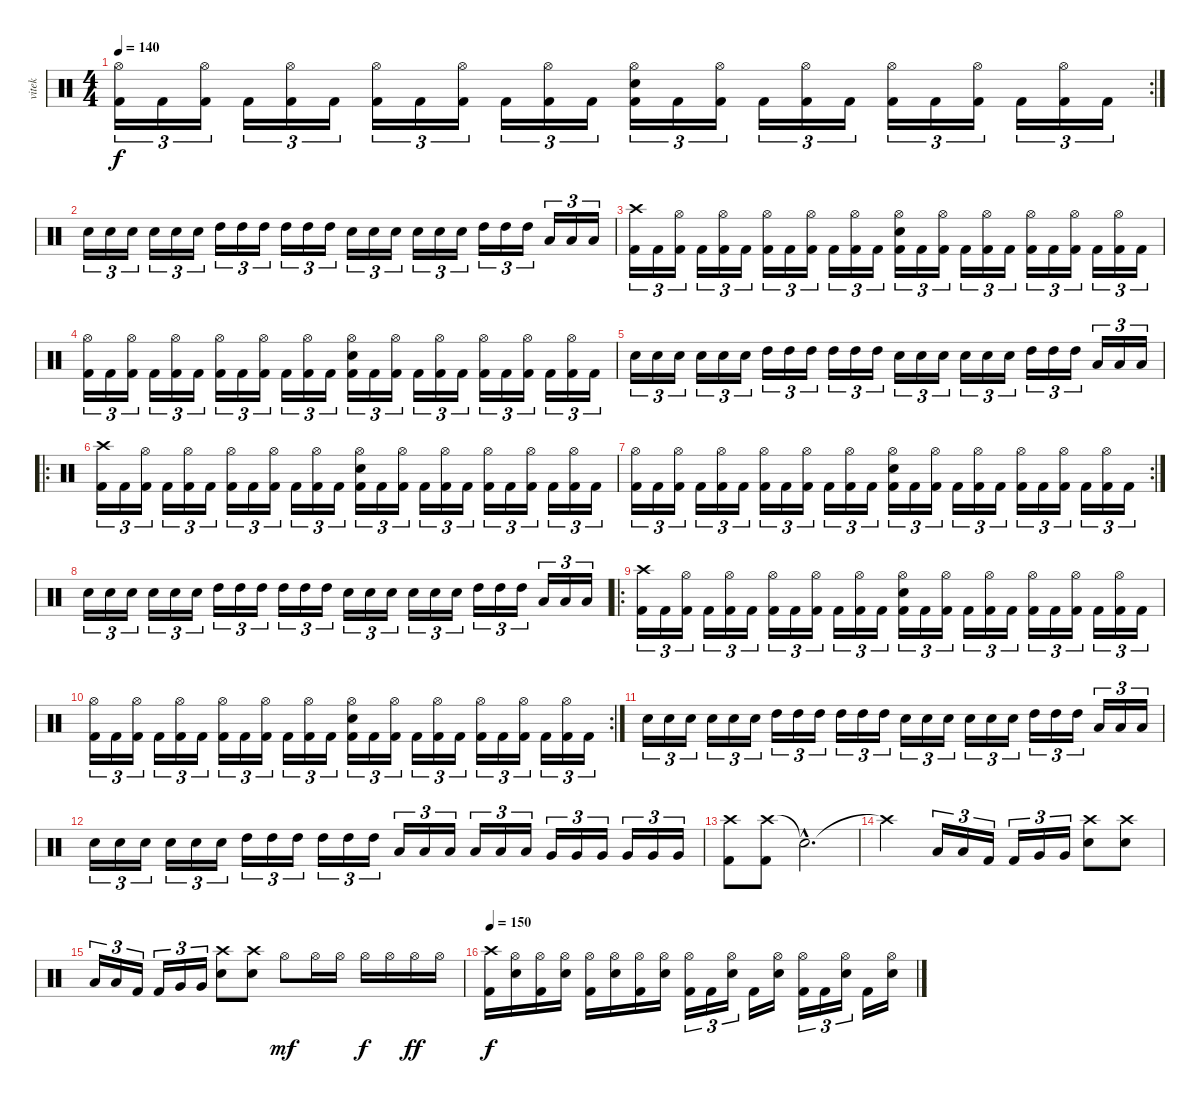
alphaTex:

\track ("vitek" "vitek") {instrument percussion}
\staff {score}
\articulation defaults
\rc 2
\ts (4 4)
\tempo 140
\clef neutral
\ks c
("Hi-Hat (open)" "Kick (hit) 2").16{tu (3 2) dy f} "Kick (hit) 2".16{tu (3 2)} ("Hi-Hat (open)" "Kick (hit) 2").16{tu (3 2)} "Kick (hit) 2".16{tu (3 2)} ("Hi-Hat (open)" "Kick (hit) 2").16{tu (3 2)} "Kick (hit) 2".16{tu (3 2)} ("Hi-Hat (open)" "Kick (hit) 2").16{tu (3 2)} "Kick (hit) 2".16{tu (3 2)} ("Hi-Hat (open)" "Kick (hit) 2").16{tu (3 2)} "Kick (hit) 2".16{tu (3 2)} ("Hi-Hat (open)" "Kick (hit) 2").16{tu (3 2)} "Kick (hit) 2".16{tu (3 2)} ("Hi-Hat (open)" "Electric Snare (hit)" "Kick (hit) 2").16{tu (3 2)} "Kick (hit) 2".16{tu (3 2)} ("Hi-Hat (open)" "Kick (hit) 2").16{tu (3 2)} "Kick (hit) 2".16{tu (3 2)} ("Hi-Hat (open)" "Kick (hit) 2").16{tu (3 2)} "Kick (hit) 2".16{tu (3 2)} ("Hi-Hat (open)" "Kick (hit) 2").16{tu (3 2)} "Kick (hit) 2".16{tu (3 2)} ("Hi-Hat (open)" "Kick (hit) 2").16{tu (3 2)} "Kick (hit) 2".16{tu (3 2)} ("Hi-Hat (open)" "Kick (hit) 2").16{tu (3 2)} "Kick (hit) 2".16{tu (3 2)} |
"Electric Snare (hit)".16{tu (3 2)} "Electric Snare (hit)".16{tu (3 2)} "Electric Snare (hit)".16{tu (3 2)} "Electric Snare (hit)".16{tu (3 2)} "Electric Snare (hit)".16{tu (3 2)} "Electric Snare (hit)".16{tu (3 2)} "High Tom (hit)".16{tu (3 2)} "High Tom (hit)".16{tu (3 2)} "High Tom (hit)".16{tu (3 2)} "High Tom (hit)".16{tu (3 2)} "High Tom (hit)".16{tu (3 2)} "High Tom (hit)".16{tu (3 2)} "Electric Snare (hit)".16{tu (3 2)} "Electric Snare (hit)".16{tu (3 2)} "Electric Snare (hit)".16{tu (3 2)} "Electric Snare (hit)".16{tu (3 2)} "Electric Snare (hit)".16{tu (3 2)} "Electric Snare (hit)".16{tu (3 2)} "High Tom (hit)".16{tu (3 2)} "High Tom (hit)".16{tu (3 2)} "High Tom (hit)".16{tu (3 2)} "Low Tom (hit)".16{tu (3 2)} "Low Tom (hit)".16{tu (3 2)} "Low Tom (hit)".16{tu (3 2)} |
("Crash high (hit)" "Kick (hit) 2").16{tu (3 2)} "Kick (hit) 2".16{tu (3 2)} ("Hi-Hat (open)" "Kick (hit) 2").16{tu (3 2)} "Kick (hit) 2".16{tu (3 2)} ("Hi-Hat (open)" "Kick (hit) 2").16{tu (3 2)} "Kick (hit) 2".16{tu (3 2)} ("Hi-Hat (open)" "Kick (hit) 2").16{tu (3 2)} "Kick (hit) 2".16{tu (3 2)} ("Hi-Hat (open)" "Kick (hit) 2").16{tu (3 2)} "Kick (hit) 2".16{tu (3 2)} ("Hi-Hat (open)" "Kick (hit) 2").16{tu (3 2)} "Kick (hit) 2".16{tu (3 2)} ("Hi-Hat (open)" "Electric Snare (hit)" "Kick (hit) 2").16{tu (3 2)} "Kick (hit) 2".16{tu (3 2)} ("Hi-Hat (open)" "Kick (hit) 2").16{tu (3 2)} "Kick (hit) 2".16{tu (3 2)} ("Hi-Hat (open)" "Kick (hit) 2").16{tu (3 2)} "Kick (hit) 2".16{tu (3 2)} ("Hi-Hat (open)" "Kick (hit) 2").16{tu (3 2)} "Kick (hit) 2".16{tu (3 2)} ("Hi-Hat (open)" "Kick (hit) 2").16{tu (3 2)} "Kick (hit) 2".16{tu (3 2)} ("Hi-Hat (open)" "Kick (hit) 2").16{tu (3 2)} "Kick (hit) 2".16{tu (3 2)} |
("Hi-Hat (open)" "Kick (hit) 2").16{tu (3 2)} "Kick (hit) 2".16{tu (3 2)} ("Hi-Hat (open)" "Kick (hit) 2").16{tu (3 2)} "Kick (hit) 2".16{tu (3 2)} ("Hi-Hat (open)" "Kick (hit) 2").16{tu (3 2)} "Kick (hit) 2".16{tu (3 2)} ("Hi-Hat (open)" "Kick (hit) 2").16{tu (3 2)} "Kick (hit) 2".16{tu (3 2)} ("Hi-Hat (open)" "Kick (hit) 2").16{tu (3 2)} "Kick (hit) 2".16{tu (3 2)} ("Hi-Hat (open)" "Kick (hit) 2").16{tu (3 2)} "Kick (hit) 2".16{tu (3 2)} ("Hi-Hat (open)" "Electric Snare (hit)" "Kick (hit) 2").16{tu (3 2)} "Kick (hit) 2".16{tu (3 2)} ("Hi-Hat (open)" "Kick (hit) 2").16{tu (3 2)} "Kick (hit) 2".16{tu (3 2)} ("Hi-Hat (open)" "Kick (hit) 2").16{tu (3 2)} "Kick (hit) 2".16{tu (3 2)} ("Hi-Hat (open)" "Kick (hit) 2").16{tu (3 2)} "Kick (hit) 2".16{tu (3 2)} ("Hi-Hat (open)" "Kick (hit) 2").16{tu (3 2)} "Kick (hit) 2".16{tu (3 2)} ("Hi-Hat (open)" "Kick (hit) 2").16{tu (3 2)} "Kick (hit) 2".16{tu (3 2)} |
"Electric Snare (hit)".16{tu (3 2)} "Electric Snare (hit)".16{tu (3 2)} "Electric Snare (hit)".16{tu (3 2)} "Electric Snare (hit)".16{tu (3 2)} "Electric Snare (hit)".16{tu (3 2)} "Electric Snare (hit)".16{tu (3 2)} "High Tom (hit)".16{tu (3 2)} "High Tom (hit)".16{tu (3 2)} "High Tom (hit)".16{tu (3 2)} "High Tom (hit)".16{tu (3 2)} "High Tom (hit)".16{tu (3 2)} "High Tom (hit)".16{tu (3 2)} "Electric Snare (hit)".16{tu (3 2)} "Electric Snare (hit)".16{tu (3 2)} "Electric Snare (hit)".16{tu (3 2)} "Electric Snare (hit)".16{tu (3 2)} "Electric Snare (hit)".16{tu (3 2)} "Electric Snare (hit)".16{tu (3 2)} "High Tom (hit)".16{tu (3 2)} "High Tom (hit)".16{tu (3 2)} "High Tom (hit)".16{tu (3 2)} "Low Tom (hit)".16{tu (3 2)} "Low Tom (hit)".16{tu (3 2)} "Low Tom (hit)".16{tu (3 2)} |
\ro
("Crash high (hit)" "Kick (hit) 2").16{tu (3 2)} "Kick (hit) 2".16{tu (3 2)} ("Hi-Hat (open)" "Kick (hit) 2").16{tu (3 2)} "Kick (hit) 2".16{tu (3 2)} ("Hi-Hat (open)" "Kick (hit) 2").16{tu (3 2)} "Kick (hit) 2".16{tu (3 2)} ("Hi-Hat (open)" "Kick (hit) 2").16{tu (3 2)} "Kick (hit) 2".16{tu (3 2)} ("Hi-Hat (open)" "Kick (hit) 2").16{tu (3 2)} "Kick (hit) 2".16{tu (3 2)} ("Hi-Hat (open)" "Kick (hit) 2").16{tu (3 2)} "Kick (hit) 2".16{tu (3 2)} ("Hi-Hat (open)" "Electric Snare (hit)" "Kick (hit) 2").16{tu (3 2)} "Kick (hit) 2".16{tu (3 2)} ("Hi-Hat (open)" "Kick (hit) 2").16{tu (3 2)} "Kick (hit) 2".16{tu (3 2)} ("Hi-Hat (open)" "Kick (hit) 2").16{tu (3 2)} "Kick (hit) 2".16{tu (3 2)} ("Hi-Hat (open)" "Kick (hit) 2").16{tu (3 2)} "Kick (hit) 2".16{tu (3 2)} ("Hi-Hat (open)" "Kick (hit) 2").16{tu (3 2)} "Kick (hit) 2".16{tu (3 2)} ("Hi-Hat (open)" "Kick (hit) 2").16{tu (3 2)} "Kick (hit) 2".16{tu (3 2)} |
\rc 2
("Hi-Hat (open)" "Kick (hit) 2").16{tu (3 2)} "Kick (hit) 2".16{tu (3 2)} ("Hi-Hat (open)" "Kick (hit) 2").16{tu (3 2)} "Kick (hit) 2".16{tu (3 2)} ("Hi-Hat (open)" "Kick (hit) 2").16{tu (3 2)} "Kick (hit) 2".16{tu (3 2)} ("Hi-Hat (open)" "Kick (hit) 2").16{tu (3 2)} "Kick (hit) 2".16{tu (3 2)} ("Hi-Hat (open)" "Kick (hit) 2").16{tu (3 2)} "Kick (hit) 2".16{tu (3 2)} ("Hi-Hat (open)" "Kick (hit) 2").16{tu (3 2)} "Kick (hit) 2".16{tu (3 2)} ("Hi-Hat (open)" "Electric Snare (hit)" "Kick (hit) 2").16{tu (3 2)} "Kick (hit) 2".16{tu (3 2)} ("Hi-Hat (open)" "Kick (hit) 2").16{tu (3 2)} "Kick (hit) 2".16{tu (3 2)} ("Hi-Hat (open)" "Kick (hit) 2").16{tu (3 2)} "Kick (hit) 2".16{tu (3 2)} ("Hi-Hat (open)" "Kick (hit) 2").16{tu (3 2)} "Kick (hit) 2".16{tu (3 2)} ("Hi-Hat (open)" "Kick (hit) 2").16{tu (3 2)} "Kick (hit) 2".16{tu (3 2)} ("Hi-Hat (open)" "Kick (hit) 2").16{tu (3 2)} "Kick (hit) 2".16{tu (3 2)} |
"Electric Snare (hit)".16{tu (3 2)} "Electric Snare (hit)".16{tu (3 2)} "Electric Snare (hit)".16{tu (3 2)} "Electric Snare (hit)".16{tu (3 2)} "Electric Snare (hit)".16{tu (3 2)} "Electric Snare (hit)".16{tu (3 2)} "High Tom (hit)".16{tu (3 2)} "High Tom (hit)".16{tu (3 2)} "High Tom (hit)".16{tu (3 2)} "High Tom (hit)".16{tu (3 2)} "High Tom (hit)".16{tu (3 2)} "High Tom (hit)".16{tu (3 2)} "Electric Snare (hit)".16{tu (3 2)} "Electric Snare (hit)".16{tu (3 2)} "Electric Snare (hit)".16{tu (3 2)} "Electric Snare (hit)".16{tu (3 2)} "Electric Snare (hit)".16{tu (3 2)} "Electric Snare (hit)".16{tu (3 2)} "High Tom (hit)".16{tu (3 2)} "High Tom (hit)".16{tu (3 2)} "High Tom (hit)".16{tu (3 2)} "Low Tom (hit)".16{tu (3 2)} "Low Tom (hit)".16{tu (3 2)} "Low Tom (hit)".16{tu (3 2)} |
\ro
("Crash high (hit)" "Kick (hit) 2").16{tu (3 2)} "Kick (hit) 2".16{tu (3 2)} ("Hi-Hat (open)" "Kick (hit) 2").16{tu (3 2)} "Kick (hit) 2".16{tu (3 2)} ("Hi-Hat (open)" "Kick (hit) 2").16{tu (3 2)} "Kick (hit) 2".16{tu (3 2)} ("Hi-Hat (open)" "Kick (hit) 2").16{tu (3 2)} "Kick (hit) 2".16{tu (3 2)} ("Hi-Hat (open)" "Kick (hit) 2").16{tu (3 2)} "Kick (hit) 2".16{tu (3 2)} ("Hi-Hat (open)" "Kick (hit) 2").16{tu (3 2)} "Kick (hit) 2".16{tu (3 2)} ("Hi-Hat (open)" "Electric Snare (hit)" "Kick (hit) 2").16{tu (3 2)} "Kick (hit) 2".16{tu (3 2)} ("Hi-Hat (open)" "Kick (hit) 2").16{tu (3 2)} "Kick (hit) 2".16{tu (3 2)} ("Hi-Hat (open)" "Kick (hit) 2").16{tu (3 2)} "Kick (hit) 2".16{tu (3 2)} ("Hi-Hat (open)" "Kick (hit) 2").16{tu (3 2)} "Kick (hit) 2".16{tu (3 2)} ("Hi-Hat (open)" "Kick (hit) 2").16{tu (3 2)} "Kick (hit) 2".16{tu (3 2)} ("Hi-Hat (open)" "Kick (hit) 2").16{tu (3 2)} "Kick (hit) 2".16{tu (3 2)} |
\rc 2
("Hi-Hat (open)" "Kick (hit) 2").16{tu (3 2)} "Kick (hit) 2".16{tu (3 2)} ("Hi-Hat (open)" "Kick (hit) 2").16{tu (3 2)} "Kick (hit) 2".16{tu (3 2)} ("Hi-Hat (open)" "Kick (hit) 2").16{tu (3 2)} "Kick (hit) 2".16{tu (3 2)} ("Hi-Hat (open)" "Kick (hit) 2").16{tu (3 2)} "Kick (hit) 2".16{tu (3 2)} ("Hi-Hat (open)" "Kick (hit) 2").16{tu (3 2)} "Kick (hit) 2".16{tu (3 2)} ("Hi-Hat (open)" "Kick (hit) 2").16{tu (3 2)} "Kick (hit) 2".16{tu (3 2)} ("Hi-Hat (open)" "Electric Snare (hit)" "Kick (hit) 2").16{tu (3 2)} "Kick (hit) 2".16{tu (3 2)} ("Hi-Hat (open)" "Kick (hit) 2").16{tu (3 2)} "Kick (hit) 2".16{tu (3 2)} ("Hi-Hat (open)" "Kick (hit) 2").16{tu (3 2)} "Kick (hit) 2".16{tu (3 2)} ("Hi-Hat (open)" "Kick (hit) 2").16{tu (3 2)} "Kick (hit) 2".16{tu (3 2)} ("Hi-Hat (open)" "Kick (hit) 2").16{tu (3 2)} "Kick (hit) 2".16{tu (3 2)} ("Hi-Hat (open)" "Kick (hit) 2").16{tu (3 2)} "Kick (hit) 2".16{tu (3 2)} |
\section ("" "")
"Electric Snare (hit)".16{tu (3 2)} "Electric Snare (hit)".16{tu (3 2)} "Electric Snare (hit)".16{tu (3 2)} "Electric Snare (hit)".16{tu (3 2)} "Electric Snare (hit)".16{tu (3 2)} "Electric Snare (hit)".16{tu (3 2)} "High Tom (hit)".16{tu (3 2)} "High Tom (hit)".16{tu (3 2)} "High Tom (hit)".16{tu (3 2)} "High Tom (hit)".16{tu (3 2)} "High Tom (hit)".16{tu (3 2)} "High Tom (hit)".16{tu (3 2)} "Electric Snare (hit)".16{tu (3 2)} "Electric Snare (hit)".16{tu (3 2)} "Electric Snare (hit)".16{tu (3 2)} "Electric Snare (hit)".16{tu (3 2)} "Electric Snare (hit)".16{tu (3 2)} "Electric Snare (hit)".16{tu (3 2)} "High Tom (hit)".16{tu (3 2)} "High Tom (hit)".16{tu (3 2)} "High Tom (hit)".16{tu (3 2)} "Low Tom (hit)".16{tu (3 2)} "Low Tom (hit)".16{tu (3 2)} "Low Tom (hit)".16{tu (3 2)} |
"Electric Snare (hit)".16{tu (3 2)} "Electric Snare (hit)".16{tu (3 2)} "Electric Snare (hit)".16{tu (3 2)} "Electric Snare (hit)".16{tu (3 2)} "Electric Snare (hit)".16{tu (3 2)} "Electric Snare (hit)".16{tu (3 2)} "High Tom (hit)".16{tu (3 2)} "High Tom (hit)".16{tu (3 2)} "High Tom (hit)".16{tu (3 2)} "High Tom (hit)".16{tu (3 2)} "High Tom (hit)".16{tu (3 2)} "High Tom (hit)".16{tu (3 2)} "Low Tom (hit)".16{tu (3 2)} "Low Tom (hit)".16{tu (3 2)} "Low Tom (hit)".16{tu (3 2)} "Low Tom (hit)".16{tu (3 2)} "Low Tom (hit)".16{tu (3 2)} "Low Tom (hit)".16{tu (3 2)} "Very Low Tom (hit)".16{tu (3 2)} "Very Low Tom (hit)".16{tu (3 2)} "Very Low Tom (hit)".16{tu (3 2)} "Very Low Tom (hit)".16{tu (3 2)} "Very Low Tom (hit)".16{tu (3 2)} "Very Low Tom (hit)".16{tu (3 2)} |
("Crash high (hit)" "Kick (hit) 2").8 ("Crash high (hit)" "Kick (hit) 2").8 "Snare (hit)"{hac t}.2{d} |
"Crash high (hit)"{t}.2 "Low Tom (hit)".16{tu (3 2)} "Low Tom (hit)".16{tu (3 2)} "Kick (hit) 2".16{tu (3 2)} "Kick (hit) 2".16{tu (3 2)} "Very Low Tom (hit)".16{tu (3 2)} "Very Low Tom (hit)".16{tu (3 2)} ("Crash high (hit)" "Electric Snare (hit)").8 ("Crash high (hit)" "Electric Snare (hit)").8 |
"Low Tom (hit)".16{tu (3 2)} "Low Tom (hit)".16{tu (3 2)} "Kick (hit) 2".16{tu (3 2)} "Kick (hit) 2".16{tu (3 2)} "Very Low Tom (hit)".16{tu (3 2)} "Very Low Tom (hit)".16{tu (3 2)} ("Crash high (hit)" "Electric Snare (hit)").8 ("Crash high (hit)" "Electric Snare (hit)").8 "Hi-Hat (open)".8{dy mf} "Hi-Hat (open)".16 "Hi-Hat (open)".16 "Hi-Hat (open)".16{dy f} "Hi-Hat (open)".16 "Hi-Hat (open)".16{dy ff} "Hi-Hat (open)".16 |
\section ("" "")
\tempo 150
("Crash high (hit)" "Kick (hit) 2").16{dy f} ("Hi-Hat (open)" "Electric Snare (hit)").16 ("Hi-Hat (open)" "Kick (hit) 2").16 ("Hi-Hat (open)" "Electric Snare (hit)").16 ("Hi-Hat (open)" "Kick (hit) 2").16 ("Hi-Hat (open)" "Electric Snare (hit)").16 ("Hi-Hat (open)" "Kick (hit) 2").16 ("Hi-Hat (open)" "Electric Snare (hit)").16 ("Hi-Hat (open)" "Kick (hit) 2").16{tu (3 2)} "Kick (hit) 2".16{tu (3 2)} ("Hi-Hat (open)" "Electric Snare (hit)").16{tu (3 2)} "Kick (hit) 2".16 ("Hi-Hat (open)" "Electric Snare (hit)").16 ("Hi-Hat (open)" "Kick (hit) 2").16{tu (3 2)} "Kick (hit) 2".16{tu (3 2)} ("Hi-Hat (open)" "Electric Snare (hit)").16{tu (3 2)} "Kick (hit) 2".16 ("Hi-Hat (open)" "Electric Snare (hit)").16
